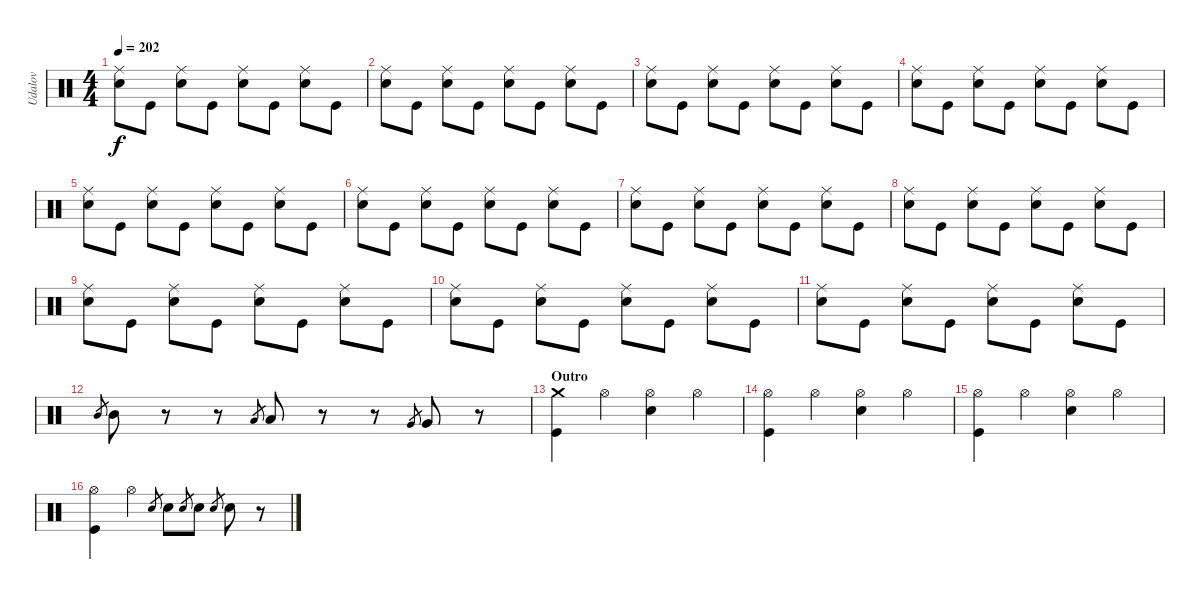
\track ("Udalov" "Udalov") {instrument percussion}
\staff {score}
\articulation defaults
\ts (4 4)
\tempo 202
\clef neutral
\ks c
("Electric Snare (hit)" "Ride (middle)").8{dy f} "Kick (hit)".8 ("Electric Snare (hit)" "Ride (middle)").8 "Kick (hit)".8 ("Electric Snare (hit)" "Ride (middle)").8 "Kick (hit)".8 ("Electric Snare (hit)" "Ride (middle)").8 "Kick (hit)".8 |
("Electric Snare (hit)" "Ride (middle)").8 "Kick (hit)".8 ("Electric Snare (hit)" "Ride (middle)").8 "Kick (hit)".8 ("Electric Snare (hit)" "Ride (middle)").8 "Kick (hit)".8 ("Electric Snare (hit)" "Ride (middle)").8 "Kick (hit)".8 |
("Electric Snare (hit)" "Ride (middle)").8 "Kick (hit)".8 ("Electric Snare (hit)" "Ride (middle)").8 "Kick (hit)".8 ("Electric Snare (hit)" "Ride (middle)").8 "Kick (hit)".8 ("Electric Snare (hit)" "Ride (middle)").8 "Kick (hit)".8 |
("Electric Snare (hit)" "Ride (middle)").8 "Kick (hit)".8 ("Electric Snare (hit)" "Ride (middle)").8 "Kick (hit)".8 ("Electric Snare (hit)" "Ride (middle)").8 "Kick (hit)".8 ("Electric Snare (hit)" "Ride (middle)").8 "Kick (hit)".8 |
("Electric Snare (hit)" "Ride (middle)").8 "Kick (hit)".8 ("Electric Snare (hit)" "Ride (middle)").8 "Kick (hit)".8 ("Electric Snare (hit)" "Ride (middle)").8 "Kick (hit)".8 ("Electric Snare (hit)" "Ride (middle)").8 "Kick (hit)".8 |
("Electric Snare (hit)" "Ride (middle)").8 "Kick (hit)".8 ("Electric Snare (hit)" "Ride (middle)").8 "Kick (hit)".8 ("Electric Snare (hit)" "Ride (middle)").8 "Kick (hit)".8 ("Electric Snare (hit)" "Ride (middle)").8 "Kick (hit)".8 |
("Electric Snare (hit)" "Ride (middle)").8 "Kick (hit)".8 ("Electric Snare (hit)" "Ride (middle)").8 "Kick (hit)".8 ("Electric Snare (hit)" "Ride (middle)").8 "Kick (hit)".8 ("Electric Snare (hit)" "Ride (middle)").8 "Kick (hit)".8 |
("Electric Snare (hit)" "Ride (middle)").8 "Kick (hit)".8 ("Electric Snare (hit)" "Ride (middle)").8 "Kick (hit)".8 ("Electric Snare (hit)" "Ride (middle)").8 "Kick (hit)".8 ("Electric Snare (hit)" "Ride (middle)").8 "Kick (hit)".8 |
("Electric Snare (hit)" "Ride (middle)").8 "Kick (hit)".8 ("Electric Snare (hit)" "Ride (middle)").8 "Kick (hit)".8 ("Electric Snare (hit)" "Ride (middle)").8 "Kick (hit)".8 ("Electric Snare (hit)" "Ride (middle)").8 "Kick (hit)".8 |
("Electric Snare (hit)" "Ride (middle)").8 "Kick (hit)".8 ("Electric Snare (hit)" "Ride (middle)").8 "Kick (hit)".8 ("Electric Snare (hit)" "Ride (middle)").8 "Kick (hit)".8 ("Electric Snare (hit)" "Ride (middle)").8 "Kick (hit)".8 |
("Electric Snare (hit)" "Ride (middle)").8 "Kick (hit)".8 ("Electric Snare (hit)" "Ride (middle)").8 "Kick (hit)".8 ("Electric Snare (hit)" "Ride (middle)").8 "Kick (hit)".8 ("Electric Snare (hit)" "Ride (middle)").8 "Kick (hit)".8 |
"Mid Tom (hit)".8{gr} "Mid Tom (hit)".8 r.8 r.8 "Low Tom (hit)".8{gr} "Low Tom (hit)".8 r.8 r.8 "Very Low Tom (hit)".8{gr} "Very Low Tom (hit)".8 r.8 |
\section ("" "Outro")
("Kick (hit)" "Crash medium (hit)").4 "Hi-Hat (open)".4 ("Electric Snare (hit)" "Hi-Hat (open)").4 "Hi-Hat (open)".4 |
("Kick (hit)" "Hi-Hat (open)").4 "Hi-Hat (open)".4 ("Electric Snare (hit)" "Hi-Hat (open)").4 "Hi-Hat (open)".4 |
("Kick (hit)" "Hi-Hat (open)").4 "Hi-Hat (open)".4 ("Electric Snare (hit)" "Hi-Hat (open)").4 "Hi-Hat (open)".4 |
("Kick (hit)" "Hi-Hat (open)").4 "Hi-Hat (open)".4 "Electric Snare (hit)".8{gr} "Electric Snare (hit)".8 "Electric Snare (hit)".8{gr} "Electric Snare (hit)".8 "Electric Snare (hit)".8{gr} "Electric Snare (hit)".8 r.8
